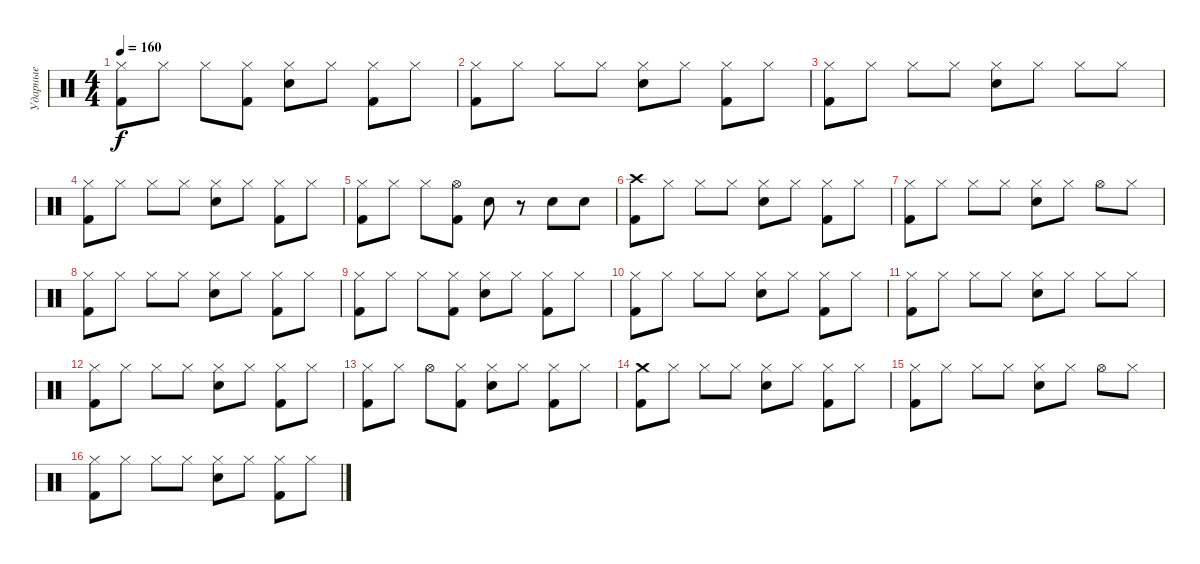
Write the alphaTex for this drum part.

\track ("Ударные" "Ударные") {instrument percussion}
\staff {score}
\articulation defaults
\ts (4 4)
\tempo 160
\clef neutral
\ks c
("Kick (hit) 2" "Hi-Hat (closed)").8{dy f} "Hi-Hat (closed)".8 "Hi-Hat (closed)".8 ("Kick (hit) 2" "Hi-Hat (closed)").8 ("Electric Snare (hit)" "Hi-Hat (closed)").8 "Hi-Hat (closed)".8 ("Kick (hit) 2" "Hi-Hat (closed)").8 "Hi-Hat (closed)".8 |
("Kick (hit) 2" "Hi-Hat (closed)").8 "Hi-Hat (closed)".8 "Hi-Hat (closed)".8 "Hi-Hat (closed)".8 ("Electric Snare (hit)" "Hi-Hat (closed)").8 "Hi-Hat (closed)".8 ("Kick (hit) 2" "Hi-Hat (closed)").8 "Hi-Hat (closed)".8 |
("Kick (hit) 2" "Hi-Hat (closed)").8 "Hi-Hat (closed)".8 "Hi-Hat (closed)".8 "Hi-Hat (closed)".8 ("Electric Snare (hit)" "Hi-Hat (closed)").8 "Hi-Hat (closed)".8 "Hi-Hat (closed)".8 "Hi-Hat (closed)".8 |
("Kick (hit) 2" "Hi-Hat (closed)").8 "Hi-Hat (closed)".8 "Hi-Hat (closed)".8 "Hi-Hat (closed)".8 ("Electric Snare (hit)" "Hi-Hat (closed)").8 "Hi-Hat (closed)".8 ("Kick (hit) 2" "Hi-Hat (closed)").8 "Hi-Hat (closed)".8 |
("Kick (hit) 2" "Hi-Hat (closed)").8 "Hi-Hat (closed)".8 "Hi-Hat (closed)".8 ("Kick (hit) 2" "Hi-Hat (open)").8 "Electric Snare (hit)".8 r.8 "Electric Snare (hit)".8 "Electric Snare (hit)".8 |
("Kick (hit) 2" "Crash high (hit)").8 "Hi-Hat (closed)".8 "Hi-Hat (closed)".8 "Hi-Hat (closed)".8 ("Electric Snare (hit)" "Hi-Hat (closed)").8 "Hi-Hat (closed)".8 ("Kick (hit) 2" "Hi-Hat (closed)").8 "Hi-Hat (closed)".8 |
("Kick (hit) 2" "Hi-Hat (closed)").8 "Hi-Hat (closed)".8 "Hi-Hat (closed)".8 "Hi-Hat (closed)".8 ("Electric Snare (hit)" "Hi-Hat (closed)").8 "Hi-Hat (closed)".8 "Hi-Hat (open)".8 "Hi-Hat (closed)".8 |
("Kick (hit) 2" "Hi-Hat (closed)").8 "Hi-Hat (closed)".8 "Hi-Hat (closed)".8 "Hi-Hat (closed)".8 ("Electric Snare (hit)" "Hi-Hat (closed)").8 "Hi-Hat (closed)".8 ("Kick (hit) 2" "Hi-Hat (closed)").8 "Hi-Hat (closed)".8 |
("Kick (hit) 2" "Hi-Hat (closed)").8 "Hi-Hat (closed)".8 "Hi-Hat (closed)".8 ("Kick (hit) 2" "Hi-Hat (closed)").8 ("Electric Snare (hit)" "Hi-Hat (closed)").8 "Hi-Hat (closed)".8 ("Kick (hit) 2" "Hi-Hat (closed)").8 "Hi-Hat (closed)".8 |
("Kick (hit) 2" "Hi-Hat (closed)").8 "Hi-Hat (closed)".8 "Hi-Hat (closed)".8 "Hi-Hat (closed)".8 ("Electric Snare (hit)" "Hi-Hat (closed)").8 "Hi-Hat (closed)".8 ("Kick (hit) 2" "Hi-Hat (closed)").8 "Hi-Hat (closed)".8 |
("Kick (hit) 2" "Hi-Hat (closed)").8 "Hi-Hat (closed)".8 "Hi-Hat (closed)".8 "Hi-Hat (closed)".8 ("Electric Snare (hit)" "Hi-Hat (closed)").8 "Hi-Hat (closed)".8 "Hi-Hat (closed)".8 "Hi-Hat (closed)".8 |
("Kick (hit) 2" "Hi-Hat (closed)").8 "Hi-Hat (closed)".8 "Hi-Hat (closed)".8 "Hi-Hat (closed)".8 ("Electric Snare (hit)" "Hi-Hat (closed)").8 "Hi-Hat (closed)".8 ("Kick (hit) 2" "Hi-Hat (closed)").8 "Hi-Hat (closed)".8 |
("Kick (hit) 2" "Hi-Hat (closed)").8 "Hi-Hat (closed)".8 "Hi-Hat (open)".8 ("Kick (hit) 2" "Hi-Hat (closed)").8 ("Electric Snare (hit)" "Hi-Hat (closed)").8 "Hi-Hat (closed)".8 ("Kick (hit) 2" "Hi-Hat (closed)").8 "Hi-Hat (closed)".8 |
("Kick (hit) 2" "Crash medium (hit)").8 "Hi-Hat (closed)".8 "Hi-Hat (closed)".8 "Hi-Hat (closed)".8 ("Electric Snare (hit)" "Hi-Hat (closed)").8 "Hi-Hat (closed)".8 ("Kick (hit) 2" "Hi-Hat (closed)").8 "Hi-Hat (closed)".8 |
("Kick (hit) 2" "Hi-Hat (closed)").8 "Hi-Hat (closed)".8 "Hi-Hat (closed)".8 "Hi-Hat (closed)".8 ("Electric Snare (hit)" "Hi-Hat (closed)").8 "Hi-Hat (closed)".8 "Hi-Hat (open)".8 "Hi-Hat (closed)".8 |
("Kick (hit) 2" "Hi-Hat (closed)").8 "Hi-Hat (closed)".8 "Hi-Hat (closed)".8 "Hi-Hat (closed)".8 ("Electric Snare (hit)" "Hi-Hat (closed)").8 "Hi-Hat (closed)".8 ("Kick (hit) 2" "Hi-Hat (closed)").8 "Hi-Hat (closed)".8
